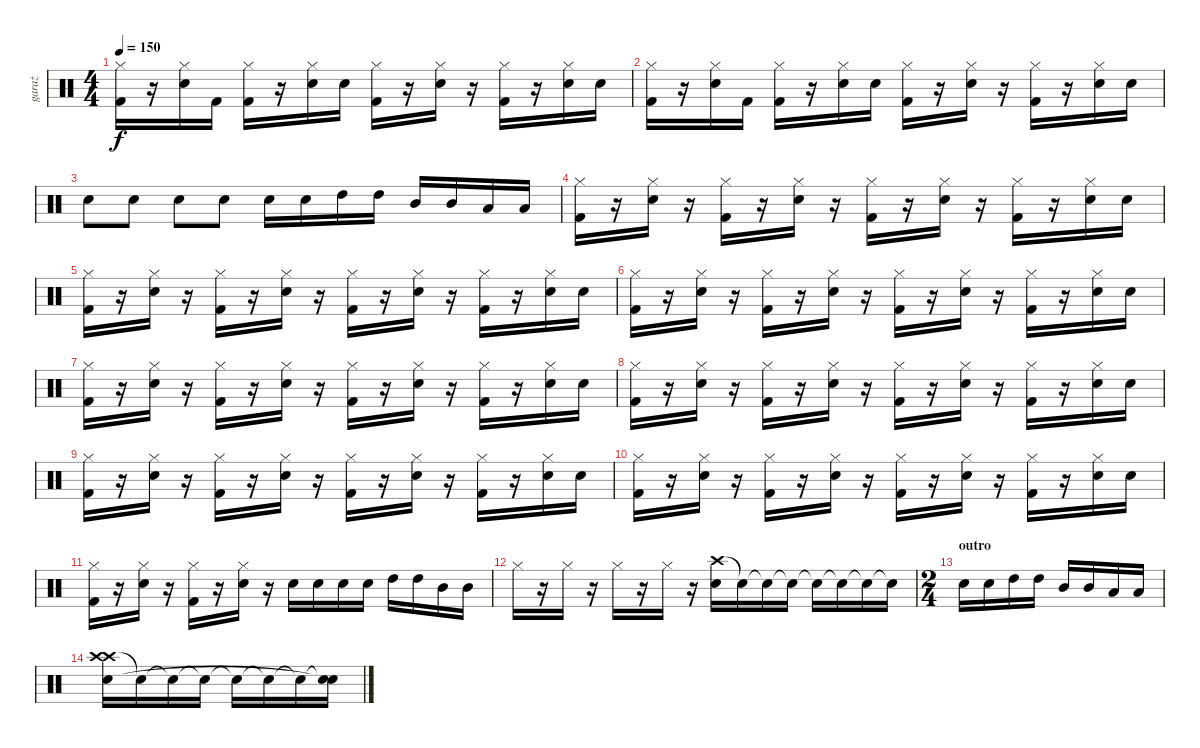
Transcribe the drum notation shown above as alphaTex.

\track ("garaż" "garaż") {instrument percussion}
\staff {score}
\articulation defaults
\ts (4 4)
\tempo 150
\clef neutral
\ks c
("Kick (hit) 2" "Hi-Hat (closed)").16{dy f} r.16 ("Snare (hit) 2" "Hi-Hat (closed)").16 "Kick (hit) 2".16 ("Kick (hit) 2" "Hi-Hat (closed)").16 r.16 ("Snare (hit) 2" "Hi-Hat (closed)").16 "Snare (hit) 2".16 ("Kick (hit) 2" "Hi-Hat (closed)").16 r.16 ("Snare (hit) 2" "Hi-Hat (closed)").16 r.16 ("Kick (hit) 2" "Hi-Hat (closed)").16 r.16 ("Snare (hit) 2" "Hi-Hat (closed)").16 "Snare (hit) 2".16 |
("Kick (hit) 2" "Hi-Hat (closed)").16 r.16 ("Snare (hit) 2" "Hi-Hat (closed)").16 "Kick (hit) 2".16 ("Kick (hit) 2" "Hi-Hat (closed)").16 r.16 ("Snare (hit) 2" "Hi-Hat (closed)").16 "Snare (hit) 2".16 ("Kick (hit) 2" "Hi-Hat (closed)").16 r.16 ("Snare (hit) 2" "Hi-Hat (closed)").16 r.16 ("Kick (hit) 2" "Hi-Hat (closed)").16 r.16 ("Snare (hit) 2" "Hi-Hat (closed)").16 "Snare (hit) 2".16 |
"Snare (hit) 2".8 "Snare (hit) 2".8 "Snare (hit) 2".8 "Snare (hit) 2".8 "Snare (hit) 2".16 "Snare (hit) 2".16 "High Tom (hit)".16 "High Tom (hit)".16 "Mid Tom (hit)".16 "Mid Tom (hit)".16 "Low Tom (hit)".16 "Low Tom (hit)".16 |
("Kick (hit) 2" "Hi-Hat (closed)").16 r.16 ("Snare (hit) 2" "Hi-Hat (closed)").16 r.16 ("Kick (hit) 2" "Hi-Hat (closed)").16 r.16 ("Snare (hit) 2" "Hi-Hat (closed)").16 r.16 ("Kick (hit) 2" "Hi-Hat (closed)").16 r.16 ("Snare (hit) 2" "Hi-Hat (closed)").16 r.16 ("Kick (hit) 2" "Hi-Hat (closed)").16 r.16 ("Snare (hit) 2" "Hi-Hat (closed)").16 "Snare (hit) 2".16 |
("Kick (hit) 2" "Hi-Hat (closed)").16 r.16 ("Snare (hit) 2" "Hi-Hat (closed)").16 r.16 ("Kick (hit) 2" "Hi-Hat (closed)").16 r.16 ("Snare (hit) 2" "Hi-Hat (closed)").16 r.16 ("Kick (hit) 2" "Hi-Hat (closed)").16 r.16 ("Snare (hit) 2" "Hi-Hat (closed)").16 r.16 ("Kick (hit) 2" "Hi-Hat (closed)").16 r.16 ("Snare (hit) 2" "Hi-Hat (closed)").16 "Snare (hit) 2".16 |
("Kick (hit) 2" "Hi-Hat (closed)").16 r.16 ("Snare (hit) 2" "Hi-Hat (closed)").16 r.16 ("Kick (hit) 2" "Hi-Hat (closed)").16 r.16 ("Snare (hit) 2" "Hi-Hat (closed)").16 r.16 ("Kick (hit) 2" "Hi-Hat (closed)").16 r.16 ("Snare (hit) 2" "Hi-Hat (closed)").16 r.16 ("Kick (hit) 2" "Hi-Hat (closed)").16 r.16 ("Snare (hit) 2" "Hi-Hat (closed)").16 "Snare (hit) 2".16 |
("Kick (hit) 2" "Hi-Hat (closed)").16 r.16 ("Snare (hit) 2" "Hi-Hat (closed)").16 r.16 ("Kick (hit) 2" "Hi-Hat (closed)").16 r.16 ("Snare (hit) 2" "Hi-Hat (closed)").16 r.16 ("Kick (hit) 2" "Hi-Hat (closed)").16 r.16 ("Snare (hit) 2" "Hi-Hat (closed)").16 r.16 ("Kick (hit) 2" "Hi-Hat (closed)").16 r.16 ("Snare (hit) 2" "Hi-Hat (closed)").16 "Snare (hit) 2".16 |
("Kick (hit) 2" "Hi-Hat (closed)").16 r.16 ("Snare (hit) 2" "Hi-Hat (closed)").16 r.16 ("Kick (hit) 2" "Hi-Hat (closed)").16 r.16 ("Snare (hit) 2" "Hi-Hat (closed)").16 r.16 ("Kick (hit) 2" "Hi-Hat (closed)").16 r.16 ("Snare (hit) 2" "Hi-Hat (closed)").16 r.16 ("Kick (hit) 2" "Hi-Hat (closed)").16 r.16 ("Snare (hit) 2" "Hi-Hat (closed)").16 "Snare (hit) 2".16 |
("Kick (hit) 2" "Hi-Hat (closed)").16 r.16 ("Snare (hit) 2" "Hi-Hat (closed)").16 r.16 ("Kick (hit) 2" "Hi-Hat (closed)").16 r.16 ("Snare (hit) 2" "Hi-Hat (closed)").16 r.16 ("Kick (hit) 2" "Hi-Hat (closed)").16 r.16 ("Snare (hit) 2" "Hi-Hat (closed)").16 r.16 ("Kick (hit) 2" "Hi-Hat (closed)").16 r.16 ("Snare (hit) 2" "Hi-Hat (closed)").16 "Snare (hit) 2".16 |
("Kick (hit) 2" "Hi-Hat (closed)").16 r.16 ("Snare (hit) 2" "Hi-Hat (closed)").16 r.16 ("Kick (hit) 2" "Hi-Hat (closed)").16 r.16 ("Snare (hit) 2" "Hi-Hat (closed)").16 r.16 ("Kick (hit) 2" "Hi-Hat (closed)").16 r.16 ("Snare (hit) 2" "Hi-Hat (closed)").16 r.16 ("Kick (hit) 2" "Hi-Hat (closed)").16 r.16 ("Snare (hit) 2" "Hi-Hat (closed)").16 "Snare (hit) 2".16 |
("Kick (hit) 2" "Hi-Hat (closed)").16 r.16 ("Snare (hit) 2" "Hi-Hat (closed)").16 r.16 ("Kick (hit) 2" "Hi-Hat (closed)").16 r.16 ("Snare (hit) 2" "Hi-Hat (closed)").16 r.16 "Snare (hit) 2".16 "Snare (hit) 2".16 "Snare (hit) 2".16 "Snare (hit) 2".16 "High Tom (hit)".16 "High Tom (hit)".16 "Mid Tom (hit)".16 "Mid Tom (hit)".16 |
"Hi-Hat (closed)".16 r.16 "Hi-Hat (closed)".16 r.16 "Hi-Hat (closed)".16 r.16 "Hi-Hat (closed)".16 r.16 ("Crash high (hit)" "Snare (hit) 2").16 "Snare (hit)"{t}.16 "Snare (hit)"{t}.16 "Snare (hit)"{t}.16 "Snare (hit)"{t}.16 "Snare (hit)"{t}.16 "Snare (hit)"{t}.16 "Snare (hit)"{t}.16 |
\ts (2 4)
\section ("" "outro")
"Snare (hit) 2".16 "Snare (hit) 2".16 "High Tom (hit)".16 "High Tom (hit)".16 "Mid Tom (hit)".16 "Mid Tom (hit)".16 "Low Tom (hit)".16 "Low Tom (hit)".16 |
("Crash high (hit)" "Snare (hit) 2" "Crash high (hit)").16 "Snare (hit)"{t}.16 "Snare (hit)"{t}.16 "Snare (hit)"{t}.16 "Snare (hit)"{t}.16 "Snare (hit)"{t}.16 "Snare (hit)"{t}.16 ("Snare (hit)"{t} "Snare (hit)"{t}).16
